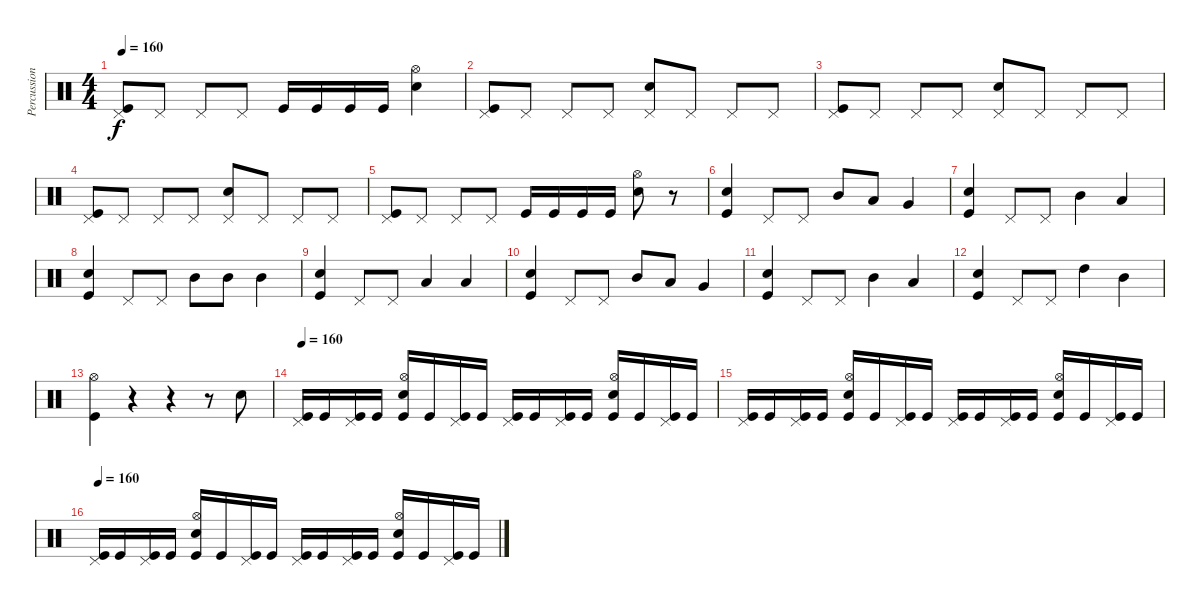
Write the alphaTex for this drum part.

\track ("Percussion" "Percussion") {instrument percussion}
\staff {score}
\articulation defaults
\ts (4 4)
\tempo 160
\clef neutral
\ks c
("Pedal Hi-Hat (hit)" "Kick (hit)").8{dy f} "Pedal Hi-Hat (hit)".8 "Pedal Hi-Hat (hit)".8 "Pedal Hi-Hat (hit)".8 "Kick (hit)".16 "Kick (hit)".16 "Kick (hit)".16 "Kick (hit)".16 ("Hi-Hat (open)" "Electric Snare (hit)").4 |
("Pedal Hi-Hat (hit)" "Kick (hit)").8 "Pedal Hi-Hat (hit)".8 "Pedal Hi-Hat (hit)".8 "Pedal Hi-Hat (hit)".8 ("Pedal Hi-Hat (hit)" "Electric Snare (hit)").8 "Pedal Hi-Hat (hit)".8 "Pedal Hi-Hat (hit)".8 "Pedal Hi-Hat (hit)".8 |
("Pedal Hi-Hat (hit)" "Kick (hit)").8 "Pedal Hi-Hat (hit)".8 "Pedal Hi-Hat (hit)".8 "Pedal Hi-Hat (hit)".8 ("Pedal Hi-Hat (hit)" "Electric Snare (hit)").8 "Pedal Hi-Hat (hit)".8 "Pedal Hi-Hat (hit)".8 "Pedal Hi-Hat (hit)".8 |
("Pedal Hi-Hat (hit)" "Kick (hit)").8 "Pedal Hi-Hat (hit)".8 "Pedal Hi-Hat (hit)".8 "Pedal Hi-Hat (hit)".8 ("Pedal Hi-Hat (hit)" "Electric Snare (hit)").8 "Pedal Hi-Hat (hit)".8 "Pedal Hi-Hat (hit)".8 "Pedal Hi-Hat (hit)".8 |
("Pedal Hi-Hat (hit)" "Kick (hit)").8 "Pedal Hi-Hat (hit)".8 "Pedal Hi-Hat (hit)".8 "Pedal Hi-Hat (hit)".8 "Kick (hit)".16 "Kick (hit)".16 "Kick (hit)".16 "Kick (hit)".16 ("Hi-Hat (open)" "Electric Snare (hit)").8 r.8 |
("Electric Snare (hit)" "Kick (hit)").4 "Pedal Hi-Hat (hit)".8 "Pedal Hi-Hat (hit)".8 "Mid Tom (hit)".8 "Low Tom (hit)".8 "Very Low Tom (hit)".4 |
("Electric Snare (hit)" "Kick (hit)").4 "Pedal Hi-Hat (hit)".8 "Pedal Hi-Hat (hit)".8 "Mid Tom (hit)".4 "Low Tom (hit)".4 |
("Electric Snare (hit)" "Kick (hit)").4 "Pedal Hi-Hat (hit)".8 "Pedal Hi-Hat (hit)".8 "Mid Tom (hit)".8 "Mid Tom (hit)".8 "Mid Tom (hit)".4 |
("Electric Snare (hit)" "Kick (hit)").4 "Pedal Hi-Hat (hit)".8 "Pedal Hi-Hat (hit)".8 "Low Tom (hit)".4 "Low Tom (hit)".4 |
("Electric Snare (hit)" "Kick (hit)").4 "Pedal Hi-Hat (hit)".8 "Pedal Hi-Hat (hit)".8 "Mid Tom (hit)".8 "Low Tom (hit)".8 "Very Low Tom (hit)".4 |
("Electric Snare (hit)" "Kick (hit)").4 "Pedal Hi-Hat (hit)".8 "Pedal Hi-Hat (hit)".8 "Mid Tom (hit)".4 "Low Tom (hit)".4 |
("Electric Snare (hit)" "Kick (hit)").4 "Pedal Hi-Hat (hit)".8 "Pedal Hi-Hat (hit)".8 "High Tom (hit)".4 "Mid Tom (hit)".4 |
("Hi-Hat (open)" "Kick (hit)").4 r.4 r.4 r.8 "Electric Snare (hit)".8 |
\tempo 160
("Pedal Hi-Hat (hit)" "Kick (hit)").16 "Kick (hit)".16 ("Pedal Hi-Hat (hit)" "Kick (hit)").16 "Kick (hit)".16 ("Hi-Hat (open)" "Electric Snare (hit)" "Kick (hit)").16 "Kick (hit)".16 ("Pedal Hi-Hat (hit)" "Kick (hit)").16 "Kick (hit)".16 ("Pedal Hi-Hat (hit)" "Kick (hit)").16 "Kick (hit)".16 ("Pedal Hi-Hat (hit)" "Kick (hit)").16 "Kick (hit)".16 ("Hi-Hat (open)" "Electric Snare (hit)" "Kick (hit)").16 "Kick (hit)".16 ("Pedal Hi-Hat (hit)" "Kick (hit)").16 "Kick (hit)".16 |
("Pedal Hi-Hat (hit)" "Kick (hit)").16 "Kick (hit)".16 ("Pedal Hi-Hat (hit)" "Kick (hit)").16 "Kick (hit)".16 ("Hi-Hat (open)" "Electric Snare (hit)" "Kick (hit)").16 "Kick (hit)".16 ("Pedal Hi-Hat (hit)" "Kick (hit)").16 "Kick (hit)".16 ("Pedal Hi-Hat (hit)" "Kick (hit)").16 "Kick (hit)".16 ("Pedal Hi-Hat (hit)" "Kick (hit)").16 "Kick (hit)".16 ("Hi-Hat (open)" "Electric Snare (hit)" "Kick (hit)").16 "Kick (hit)".16 ("Pedal Hi-Hat (hit)" "Kick (hit)").16 "Kick (hit)".16 |
\tempo 160
("Pedal Hi-Hat (hit)" "Kick (hit)").16 "Kick (hit)".16 ("Pedal Hi-Hat (hit)" "Kick (hit)").16 "Kick (hit)".16 ("Hi-Hat (open)" "Electric Snare (hit)" "Kick (hit)").16 "Kick (hit)".16 ("Pedal Hi-Hat (hit)" "Kick (hit)").16 "Kick (hit)".16 ("Pedal Hi-Hat (hit)" "Kick (hit)").16 "Kick (hit)".16 ("Pedal Hi-Hat (hit)" "Kick (hit)").16 "Kick (hit)".16 ("Hi-Hat (open)" "Electric Snare (hit)" "Kick (hit)").16 "Kick (hit)".16 ("Pedal Hi-Hat (hit)" "Kick (hit)").16 "Kick (hit)".16
